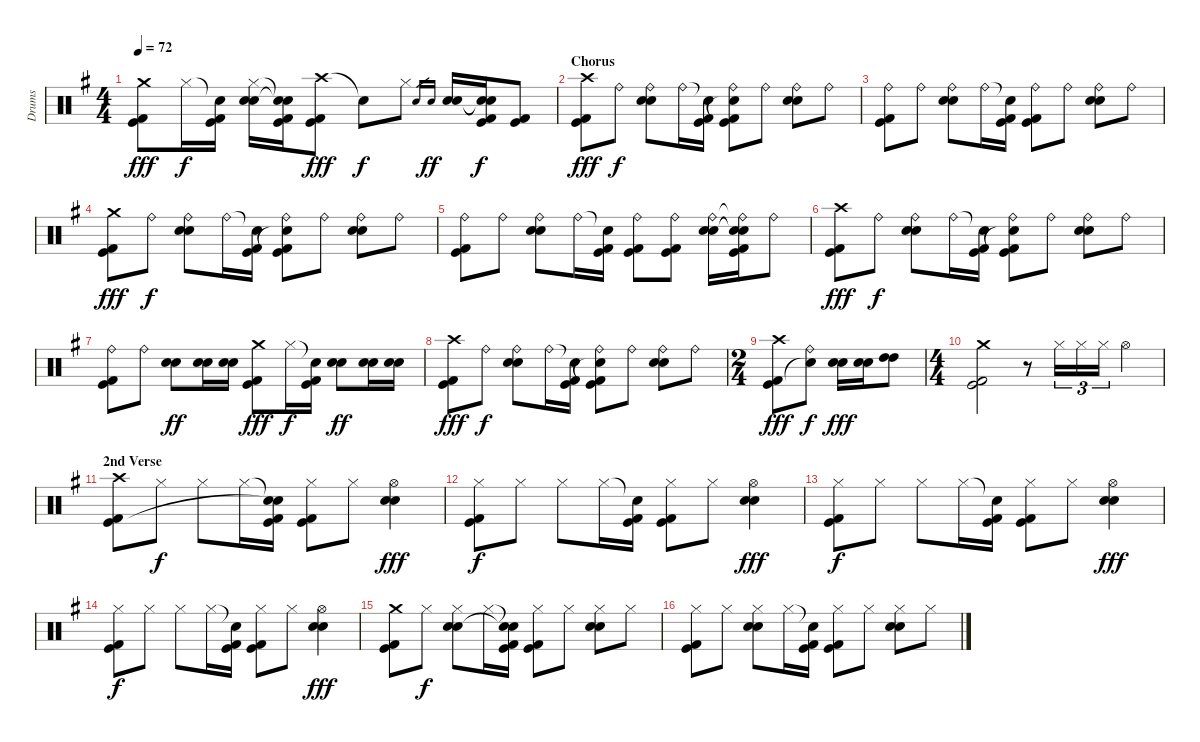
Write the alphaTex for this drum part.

\track ("Drums" "Drums") {instrument percussion}
\staff {score}
\articulation defaults
\ts (4 4)
\tempo 72
\clef neutral
\ks g
("Crash medium (hit)" "Kick (hit)" "Kick (hit) 2").8{dy fff} "Hi-Hat (closed)".16{dy f} ("Snare (hit)"{t} "Kick (hit)" "Kick (hit) 2").16 ("Hi-Hat (closed)" "Electric Snare (hit)" "Snare (hit) 2").16 ("Snare (hit)"{t} "Snare (hit)"{t} "Kick (hit)" "Kick (hit) 2").16 ("Crash high (hit)" "Kick (hit)" "Kick (hit) 2").8{dy fff} "Snare (hit)"{t}.8{dy f} "Hi-Hat (closed)".8 "Electric Snare (hit)".16{gr} "Snare (hit) 2".16{gr dy ff} ("Electric Snare (hit)" "Snare (hit) 2").16 ("Snare (hit)"{t} "Snare (hit)"{t} "Kick (hit)" "Kick (hit) 2").16{dy f} ("Kick (hit)" "Kick (hit) 2").8 |
\section ("" "Chorus")
("Crash high (hit)" "Kick (hit)" "Kick (hit) 2").8{dy fff} "Ride (bell)".8{dy f} ("Ride (bell)" "Electric Snare (hit)" "Snare (hit) 2").8 "Ride (bell)".16 ("Snare (hit)"{t} "Kick (hit)" "Kick (hit) 2").16 ("Ride (bell)" "Snare (hit)"{t} "Kick (hit)" "Kick (hit) 2").8 "Ride (bell)".8 ("Ride (bell)" "Electric Snare (hit)" "Snare (hit) 2").8 "Ride (bell)".8 |
("Ride (bell)" "Kick (hit)" "Kick (hit) 2").8 "Ride (bell)".8 ("Ride (bell)" "Electric Snare (hit)" "Snare (hit) 2").8 "Ride (bell)".16 ("Snare (hit)"{t} "Kick (hit)" "Kick (hit) 2").16 ("Ride (bell)" "Kick (hit)" "Kick (hit) 2").8 "Ride (bell)".8 ("Ride (bell)" "Electric Snare (hit)" "Snare (hit) 2").8 "Ride (bell)".8 |
("Crash medium (hit)" "Kick (hit)" "Kick (hit) 2").8{dy fff} "Ride (bell)".8{dy f} ("Ride (bell)" "Electric Snare (hit)" "Snare (hit) 2").8 "Ride (bell)".16 ("Snare (hit)"{t} "Kick (hit)" "Kick (hit) 2").16 ("Ride (bell)" "Snare (hit)"{t} "Kick (hit)" "Kick (hit) 2").8 "Ride (bell)".8 ("Ride (bell)" "Electric Snare (hit)" "Snare (hit) 2").8 "Ride (bell)".8 |
("Ride (bell)" "Kick (hit)" "Kick (hit) 2").8 "Ride (bell)".8 ("Ride (bell)" "Electric Snare (hit)" "Snare (hit) 2").8 "Ride (bell)".16 ("Snare (hit)"{t} "Kick (hit)" "Kick (hit) 2").16 ("Ride (bell)" "Kick (hit)" "Kick (hit) 2").8 ("Ride (bell)" "Kick (hit)" "Kick (hit) 2").8 ("Ride (bell)" "Electric Snare (hit)" "Snare (hit) 2").16 ("Ride (bell)"{t} "Snare (hit)"{t} "Snare (hit)"{t} "Kick (hit)" "Kick (hit) 2").16 "Ride (bell)".8 |
("Crash high (hit)" "Kick (hit)" "Kick (hit) 2").8{dy fff} "Ride (bell)".8{dy f} ("Ride (bell)" "Electric Snare (hit)" "Snare (hit) 2").8 "Ride (bell)".16 ("Snare (hit)"{t} "Kick (hit)" "Kick (hit) 2").16 ("Ride (bell)" "Snare (hit)"{t} "Kick (hit)" "Kick (hit) 2").8 "Ride (bell)".8 ("Ride (bell)" "Electric Snare (hit)" "Snare (hit) 2").8 "Ride (bell)".8 |
("Ride (bell)" "Kick (hit)" "Kick (hit) 2").8 "Ride (bell)".8 ("Electric Snare (hit)" "Snare (hit) 2").8{dy ff} ("Electric Snare (hit)" "Snare (hit) 2").16 ("Electric Snare (hit)" "Snare (hit) 2").16 ("Crash medium (hit)" "Kick (hit)" "Kick (hit) 2").8{dy fff} "Hi-Hat (closed)".16{dy f} ("Snare (hit)"{t} "Kick (hit)" "Kick (hit) 2").16 ("Electric Snare (hit)" "Snare (hit) 2").8{dy ff} ("Electric Snare (hit)" "Snare (hit) 2").16 ("Electric Snare (hit)" "Snare (hit) 2").16 |
("Crash high (hit)" "Kick (hit)" "Kick (hit) 2").8{dy fff} "Ride (bell)".8{dy f} ("Ride (bell)" "Electric Snare (hit)" "Snare (hit) 2").8 "Ride (bell)".16 ("Snare (hit)"{t} "Kick (hit)" "Kick (hit) 2").16 ("Ride (bell)" "Snare (hit)"{t} "Kick (hit)" "Kick (hit) 2").8 "Ride (bell)".8 ("Ride (bell)" "Electric Snare (hit)" "Snare (hit) 2").8 "Ride (bell)".8 |
\ts (2 4)
("Crash high (hit)" "Kick (hit)" "Kick (hit) 2").8{dy fff} ("Ride (bell)" "Snare (hit)"{t}).8{dy f} ("Electric Snare (hit)" "Snare (hit) 2").16{dy fff} ("Electric Snare (hit)" "Snare (hit) 2").16 ("High Tom (hit)" "High Tom (hit)").8 |
\ts (4 4)
("Crash medium (hit)" "Kick (hit)" "Kick (hit) 2").2 r.8 "Hi-Hat (closed)".16{tu (3 2)} "Hi-Hat (closed)".16{tu (3 2)} "Hi-Hat (closed)".16{tu (3 2)} "Hi-Hat (open)".4 |
\section ("" "2nd Verse")
("Crash high (hit)" "Kick (hit)" "Kick (hit) 2").8 "Hi-Hat (closed)".8{dy f} "Hi-Hat (closed)".8 "Hi-Hat (closed)".16 ("Snare (hit)"{t} "Snare (hit)"{t} "Kick (hit)" "Kick (hit) 2").16 ("Hi-Hat (closed)" "Kick (hit)" "Kick (hit) 2").8 "Hi-Hat (closed)".8 ("Hi-Hat (open)" "Electric Snare (hit)" "Snare (hit) 2").4{dy fff} |
("Hi-Hat (closed)" "Kick (hit)" "Kick (hit) 2").8{dy f} "Hi-Hat (closed)".8 "Hi-Hat (closed)".8 "Hi-Hat (closed)".16 ("Snare (hit)"{t} "Kick (hit)" "Kick (hit) 2").16 ("Hi-Hat (closed)" "Kick (hit)" "Kick (hit) 2").8 "Hi-Hat (closed)".8 ("Hi-Hat (open)" "Electric Snare (hit)" "Snare (hit) 2").4{dy fff} |
("Hi-Hat (closed)" "Kick (hit)" "Kick (hit) 2").8{dy f} "Hi-Hat (closed)".8 "Hi-Hat (closed)".8 "Hi-Hat (closed)".16 ("Snare (hit)"{t} "Kick (hit)" "Kick (hit) 2").16 ("Hi-Hat (closed)" "Kick (hit)" "Kick (hit) 2").8 "Hi-Hat (closed)".8 ("Hi-Hat (open)" "Electric Snare (hit)" "Snare (hit) 2").4{dy fff} |
("Hi-Hat (closed)" "Kick (hit)" "Kick (hit) 2").8{dy f} "Hi-Hat (closed)".8 "Hi-Hat (closed)".8 "Hi-Hat (closed)".16 ("Snare (hit)"{t} "Kick (hit)" "Kick (hit) 2").16 ("Hi-Hat (closed)" "Kick (hit)" "Kick (hit) 2").8 "Hi-Hat (closed)".8 ("Hi-Hat (open)" "Electric Snare (hit)" "Snare (hit) 2").4{dy fff} |
("Crash medium (hit)" "Kick (hit)" "Kick (hit) 2").8 "Hi-Hat (closed)".8{dy f} ("Hi-Hat (closed)" "Electric Snare (hit)" "Snare (hit) 2").8 "Hi-Hat (closed)".16 ("Snare (hit)"{t} "Snare (hit)"{t} "Kick (hit)" "Kick (hit) 2").16 ("Hi-Hat (closed)" "Kick (hit)" "Kick (hit) 2").8 "Hi-Hat (closed)".8 ("Hi-Hat (closed)" "Electric Snare (hit)" "Snare (hit) 2").8 "Hi-Hat (closed)".8 |
("Hi-Hat (closed)" "Kick (hit)" "Kick (hit) 2").8 "Hi-Hat (closed)".8 ("Hi-Hat (closed)" "Electric Snare (hit)" "Snare (hit) 2").8 "Hi-Hat (closed)".16 ("Snare (hit)"{t} "Kick (hit)" "Kick (hit) 2").16 ("Hi-Hat (closed)" "Kick (hit)" "Kick (hit) 2").8 "Hi-Hat (closed)".8 ("Hi-Hat (closed)" "Electric Snare (hit)" "Snare (hit) 2").8 "Hi-Hat (closed)".8
